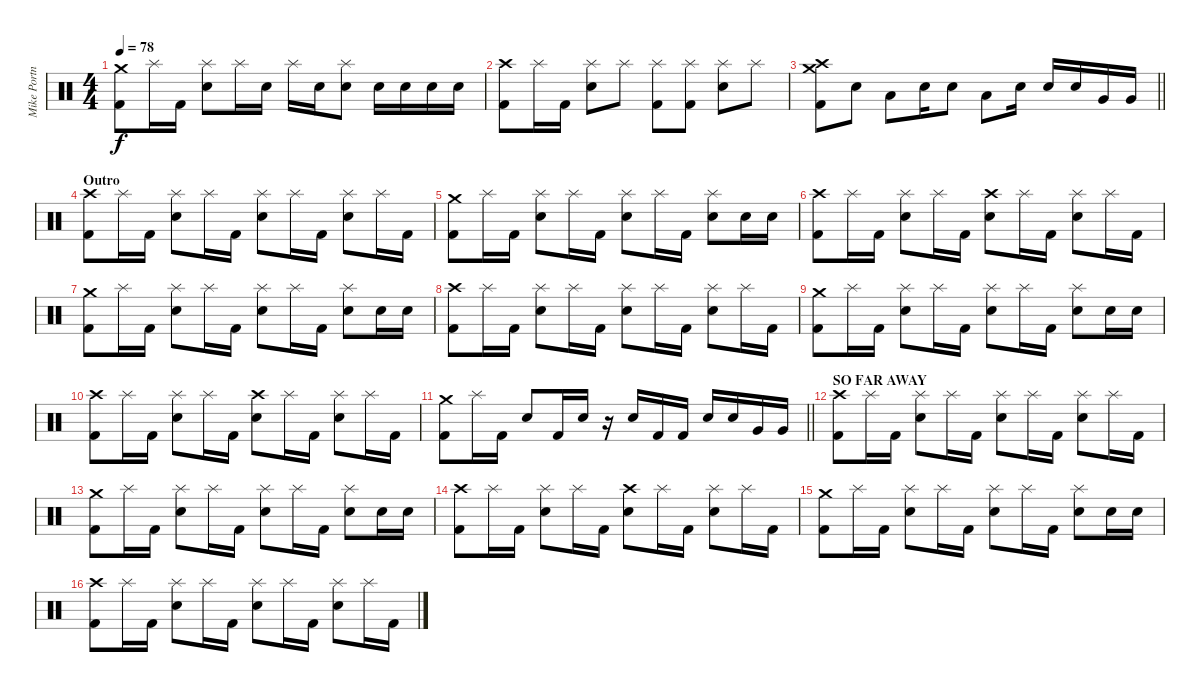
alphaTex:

\track ("Mike Portnoy" "Mike Portn") {instrument percussion}
\staff {score}
\articulation defaults
\ts (4 4)
\tempo 78
\clef neutral
\ks c
("Crash medium (hit)" "Kick (hit) 2").8{dy f} "Splash (hit)".16 "Kick (hit) 2".16 ("Splash (hit)" "Electric Snare (hit)").8 "Splash (hit)".16 "Electric Snare (hit)".16 "Splash (hit)".16 "Electric Snare (hit)".16 ("Splash (hit)" "Electric Snare (hit)").8 "Electric Snare (hit)".16 "Electric Snare (hit)".16 "Electric Snare (hit)".16 "Electric Snare (hit)".16 |
("Crash high (hit)" "Kick (hit) 2").8 "Splash (hit)".16 "Kick (hit) 2".16 ("Splash (hit)" "Electric Snare (hit)").8 "Splash (hit)".8 ("Splash (hit)" "Kick (hit) 2").8 ("Splash (hit)" "Kick (hit) 2").8 ("Splash (hit)" "Electric Snare (hit)").8 "Splash (hit)".8 |
\barLineRight lightlight
("Crash medium (hit)" "Crash high (hit)" "Kick (hit) 2").8 "Electric Snare (hit)".8 "Low Tom (hit)".8 "Electric Snare (hit)".16 "Electric Snare (hit)".8 "Low Tom (hit)".8 "Electric Snare (hit)".16 "Electric Snare (hit)".16 "Electric Snare (hit)".16 "Very Low Tom (hit)".16 "Very Low Tom (hit)".16 |
\section ("" "Outro")
("Crash high (hit)" "Kick (hit) 2").8 "Splash (hit)".16 "Kick (hit) 2".16 ("Splash (hit)" "Electric Snare (hit)").8 "Splash (hit)".16 "Kick (hit) 2".16 ("Splash (hit)" "Electric Snare (hit)").8 "Splash (hit)".16 "Kick (hit) 2".16 ("Splash (hit)" "Electric Snare (hit)").8 "Splash (hit)".16 "Kick (hit) 2".16 |
("Crash medium (hit)" "Kick (hit) 2").8 "Splash (hit)".16 "Kick (hit) 2".16 ("Splash (hit)" "Electric Snare (hit)").8 "Splash (hit)".16 "Kick (hit) 2".16 ("Splash (hit)" "Electric Snare (hit)").8 "Splash (hit)".16 "Kick (hit) 2".16 ("Splash (hit)" "Electric Snare (hit)").8 "Electric Snare (hit)".16 "Electric Snare (hit)".16 |
("Crash high (hit)" "Kick (hit) 2").8 "Splash (hit)".16 "Kick (hit) 2".16 ("Splash (hit)" "Electric Snare (hit)").8 "Splash (hit)".16 "Kick (hit) 2".16 ("Crash high (hit)" "Electric Snare (hit)").8 "Splash (hit)".16 "Kick (hit) 2".16 ("Splash (hit)" "Electric Snare (hit)").8 "Splash (hit)".16 "Kick (hit) 2".16 |
("Crash medium (hit)" "Kick (hit) 2").8 "Splash (hit)".16 "Kick (hit) 2".16 ("Splash (hit)" "Electric Snare (hit)").8 "Splash (hit)".16 "Kick (hit) 2".16 ("Splash (hit)" "Electric Snare (hit)").8 "Splash (hit)".16 "Kick (hit) 2".16 ("Splash (hit)" "Electric Snare (hit)").8 "Electric Snare (hit)".16 "Electric Snare (hit)".16 |
("Crash high (hit)" "Kick (hit) 2").8 "Splash (hit)".16 "Kick (hit) 2".16 ("Splash (hit)" "Electric Snare (hit)").8 "Splash (hit)".16 "Kick (hit) 2".16 ("Splash (hit)" "Electric Snare (hit)").8 "Splash (hit)".16 "Kick (hit) 2".16 ("Splash (hit)" "Electric Snare (hit)").8 "Splash (hit)".16 "Kick (hit) 2".16 |
("Crash medium (hit)" "Kick (hit) 2").8 "Splash (hit)".16 "Kick (hit) 2".16 ("Splash (hit)" "Electric Snare (hit)").8 "Splash (hit)".16 "Kick (hit) 2".16 ("Splash (hit)" "Electric Snare (hit)").8 "Splash (hit)".16 "Kick (hit) 2".16 ("Splash (hit)" "Electric Snare (hit)").8 "Electric Snare (hit)".16 "Electric Snare (hit)".16 |
("Crash high (hit)" "Kick (hit) 2").8 "Splash (hit)".16 "Kick (hit) 2".16 ("Splash (hit)" "Electric Snare (hit)").8 "Splash (hit)".16 "Kick (hit) 2".16 ("Crash high (hit)" "Electric Snare (hit)").8 "Splash (hit)".16 "Kick (hit) 2".16 ("Splash (hit)" "Electric Snare (hit)").8 "Splash (hit)".16 "Kick (hit) 2".16 |
\barLineRight lightlight
("Crash medium (hit)" "Kick (hit) 2").8 "Splash (hit)".16 "Kick (hit) 2".16 "Electric Snare (hit)".8 "Kick (hit) 2".16 "Electric Snare (hit)".16 r.16 "Electric Snare (hit)".16 "Kick (hit) 2".16 "Kick (hit) 2".16 "Electric Snare (hit)".16 "Electric Snare (hit)".16 "Very Low Tom (hit)".16 "Very Low Tom (hit)".16 |
\section ("" "SO FAR AWAY")
("Crash high (hit)" "Kick (hit) 2").8 "Splash (hit)".16 "Kick (hit) 2".16 ("Splash (hit)" "Electric Snare (hit)").8 "Splash (hit)".16 "Kick (hit) 2".16 ("Splash (hit)" "Electric Snare (hit)").8 "Splash (hit)".16 "Kick (hit) 2".16 ("Splash (hit)" "Electric Snare (hit)").8 "Splash (hit)".16 "Kick (hit) 2".16 |
("Crash medium (hit)" "Kick (hit) 2").8 "Splash (hit)".16 "Kick (hit) 2".16 ("Splash (hit)" "Electric Snare (hit)").8 "Splash (hit)".16 "Kick (hit) 2".16 ("Splash (hit)" "Electric Snare (hit)").8 "Splash (hit)".16 "Kick (hit) 2".16 ("Splash (hit)" "Electric Snare (hit)").8 "Electric Snare (hit)".16 "Electric Snare (hit)".16 |
("Crash high (hit)" "Kick (hit) 2").8 "Splash (hit)".16 "Kick (hit) 2".16 ("Splash (hit)" "Electric Snare (hit)").8 "Splash (hit)".16 "Kick (hit) 2".16 ("Crash high (hit)" "Electric Snare (hit)").8 "Splash (hit)".16 "Kick (hit) 2".16 ("Splash (hit)" "Electric Snare (hit)").8 "Splash (hit)".16 "Kick (hit) 2".16 |
("Crash medium (hit)" "Kick (hit) 2").8 "Splash (hit)".16 "Kick (hit) 2".16 ("Splash (hit)" "Electric Snare (hit)").8 "Splash (hit)".16 "Kick (hit) 2".16 ("Splash (hit)" "Electric Snare (hit)").8 "Splash (hit)".16 "Kick (hit) 2".16 ("Splash (hit)" "Electric Snare (hit)").8 "Electric Snare (hit)".16 "Electric Snare (hit)".16 |
("Crash high (hit)" "Kick (hit) 2").8 "Splash (hit)".16 "Kick (hit) 2".16 ("Splash (hit)" "Electric Snare (hit)").8 "Splash (hit)".16 "Kick (hit) 2".16 ("Splash (hit)" "Electric Snare (hit)").8 "Splash (hit)".16 "Kick (hit) 2".16 ("Splash (hit)" "Electric Snare (hit)").8 "Splash (hit)".16 "Kick (hit) 2".16
